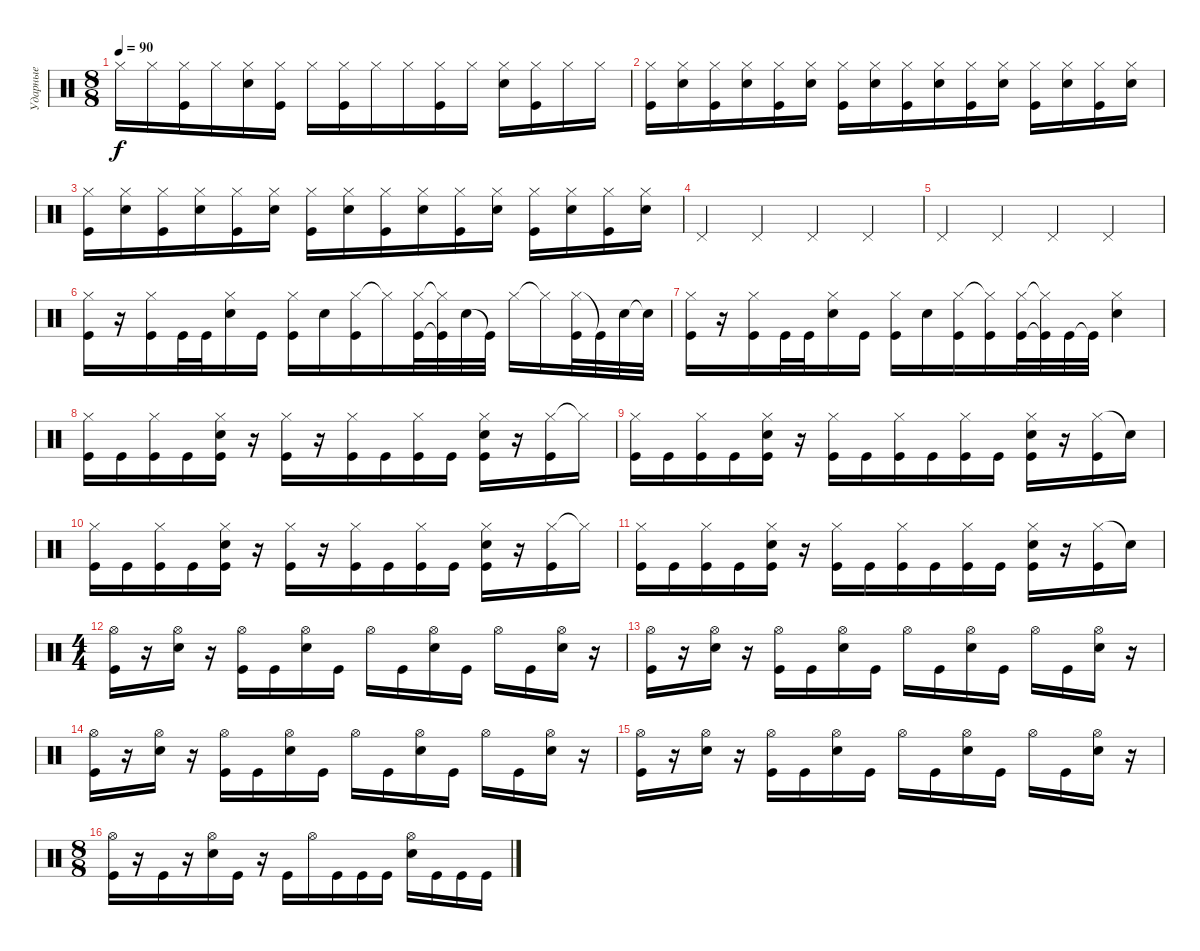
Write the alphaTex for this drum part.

\track ("Ударные" "Ударные") {instrument percussion}
\staff {score}
\articulation defaults
\ts (8 8)
\tempo 90
\clef neutral
\ks c "Hi-Hat (closed)".16{dy f} "Hi-Hat (closed)".16
("Hi-Hat (closed)" "Kick (hit)").16 "Hi-Hat (closed)".16 ("Hi-Hat (closed)" "Electric Snare (hit)").16 ("Hi-Hat (closed)" "Kick (hit)").16 "Hi-Hat (closed)".16 ("Hi-Hat (closed)" "Kick (hit)").16 "Hi-Hat (closed)".16 "Hi-Hat (closed)".16 ("Hi-Hat (closed)" "Kick (hit)").16 "Hi-Hat (closed)".16 ("Hi-Hat (closed)" "Electric Snare (hit)").16 ("Hi-Hat (closed)" "Kick (hit)").16 "Hi-Hat (closed)".16 "Hi-Hat (closed)".16 |
("Hi-Hat (closed)" "Kick (hit)").16 ("Hi-Hat (closed)" "Electric Snare (hit)").16 ("Hi-Hat (closed)" "Kick (hit)").16 ("Hi-Hat (closed)" "Electric Snare (hit)").16 ("Hi-Hat (closed)" "Kick (hit)").16 ("Hi-Hat (closed)" "Electric Snare (hit)").16 ("Hi-Hat (closed)" "Kick (hit)").16 ("Hi-Hat (closed)" "Electric Snare (hit)").16 ("Hi-Hat (closed)" "Kick (hit)").16 ("Hi-Hat (closed)" "Electric Snare (hit)").16 ("Hi-Hat (closed)" "Kick (hit)").16 ("Hi-Hat (closed)" "Electric Snare (hit)").16 ("Hi-Hat (closed)" "Kick (hit)").16 ("Hi-Hat (closed)" "Electric Snare (hit)").16 ("Hi-Hat (closed)" "Kick (hit)").16 ("Hi-Hat (closed)" "Electric Snare (hit)").16 |
("Hi-Hat (closed)" "Kick (hit)").16 ("Hi-Hat (closed)" "Electric Snare (hit)").16 ("Hi-Hat (closed)" "Kick (hit)").16 ("Hi-Hat (closed)" "Electric Snare (hit)").16 ("Hi-Hat (closed)" "Kick (hit)").16 ("Hi-Hat (closed)" "Electric Snare (hit)").16 ("Hi-Hat (closed)" "Kick (hit)").16 ("Hi-Hat (closed)" "Electric Snare (hit)").16 ("Hi-Hat (closed)" "Kick (hit)").16 ("Hi-Hat (closed)" "Electric Snare (hit)").16 ("Hi-Hat (closed)" "Kick (hit)").16 ("Hi-Hat (closed)" "Electric Snare (hit)").16 ("Hi-Hat (closed)" "Kick (hit)").16 ("Hi-Hat (closed)" "Electric Snare (hit)").16 ("Hi-Hat (closed)" "Kick (hit)").16 ("Hi-Hat (closed)" "Electric Snare (hit)").16 |
"Pedal Hi-Hat (hit)".4 "Pedal Hi-Hat (hit)".4 "Pedal Hi-Hat (hit)".4 "Pedal Hi-Hat (hit)".4 |
"Pedal Hi-Hat (hit)".4 "Pedal Hi-Hat (hit)".4 "Pedal Hi-Hat (hit)".4 "Pedal Hi-Hat (hit)".4 |
("Hi-Hat (closed)" "Kick (hit)").16 r.16 ("Hi-Hat (closed)" "Kick (hit)").16 "Kick (hit)".32 "Kick (hit)".32 ("Hi-Hat (closed)" "Electric Snare (hit)").16 "Kick (hit)".16 ("Hi-Hat (closed)" "Kick (hit)").16 "Electric Snare (hit)".16 ("Hi-Hat (closed)" "Kick (hit)").16 "Hi-Hat (closed)"{t}.16 ("Hi-Hat (closed)" "Kick (hit)").32 ("Hi-Hat (closed)"{t} "Kick (hit)"{t}).32 "Electric Snare (hit)".32 "Kick (hit)"{t}.32 "Hi-Hat (closed)".16 "Hi-Hat (closed)"{t}.16 ("Hi-Hat (closed)" "Kick (hit)").32 "Kick (hit)"{t}.32 "Electric Snare (hit)".32 "Electric Snare (hit)"{t}.32 |
("Hi-Hat (closed)" "Kick (hit)").16 r.16 ("Hi-Hat (closed)" "Kick (hit)").16 "Kick (hit)".32 "Kick (hit)".32 ("Hi-Hat (closed)" "Electric Snare (hit)").16 "Kick (hit)".16 ("Hi-Hat (closed)" "Kick (hit)").16 "Electric Snare (hit)".16 ("Hi-Hat (closed)" "Kick (hit)").16 ("Hi-Hat (closed)"{t} "Kick (hit)").16 ("Hi-Hat (closed)" "Kick (hit)").32 ("Hi-Hat (closed)"{t} "Kick (hit)"{t}).32 "Kick (hit)".32 "Kick (hit)"{t}.32 ("Hi-Hat (closed)" "Electric Snare (hit)").4 |
("Hi-Hat (closed)" "Kick (hit)").16 "Kick (hit)".16 ("Hi-Hat (closed)" "Kick (hit)").16 "Kick (hit)".16 ("Hi-Hat (closed)" "Kick (hit)" "Electric Snare (hit)").16 r.16 ("Hi-Hat (closed)" "Kick (hit)").16 r.16 ("Hi-Hat (closed)" "Kick (hit)").16 "Kick (hit)".16 ("Hi-Hat (closed)" "Kick (hit)").16 "Kick (hit)".16 ("Hi-Hat (closed)" "Kick (hit)" "Electric Snare (hit)").16 r.16 ("Hi-Hat (closed)" "Kick (hit)").16 "Hi-Hat (closed)"{t}.16 |
("Hi-Hat (closed)" "Kick (hit)").16 "Kick (hit)".16 ("Hi-Hat (closed)" "Kick (hit)").16 "Kick (hit)".16 ("Hi-Hat (closed)" "Kick (hit)" "Electric Snare (hit)").16 r.16 ("Hi-Hat (closed)" "Kick (hit)").16 "Kick (hit)".16 ("Hi-Hat (closed)" "Kick (hit)").16 "Kick (hit)".16 ("Hi-Hat (closed)" "Kick (hit)").16 "Kick (hit)".16 ("Hi-Hat (closed)" "Kick (hit)" "Electric Snare (hit)").16 r.16 ("Hi-Hat (closed)" "Kick (hit)").16 "Snare (hit)"{t}.16 |
("Hi-Hat (closed)" "Kick (hit)").16 "Kick (hit)".16 ("Hi-Hat (closed)" "Kick (hit)").16 "Kick (hit)".16 ("Hi-Hat (closed)" "Kick (hit)" "Electric Snare (hit)").16 r.16 ("Hi-Hat (closed)" "Kick (hit)").16 r.16 ("Hi-Hat (closed)" "Kick (hit)").16 "Kick (hit)".16 ("Hi-Hat (closed)" "Kick (hit)").16 "Kick (hit)".16 ("Hi-Hat (closed)" "Kick (hit)" "Electric Snare (hit)").16 r.16 ("Hi-Hat (closed)" "Kick (hit)").16 "Hi-Hat (closed)"{t}.16 |
("Hi-Hat (closed)" "Kick (hit)").16 "Kick (hit)".16 ("Hi-Hat (closed)" "Kick (hit)").16 "Kick (hit)".16 ("Hi-Hat (closed)" "Kick (hit)" "Electric Snare (hit)").16 r.16 ("Hi-Hat (closed)" "Kick (hit)").16 "Kick (hit)".16 ("Hi-Hat (closed)" "Kick (hit)").16 "Kick (hit)".16 ("Hi-Hat (closed)" "Kick (hit)").16 "Kick (hit)".16 ("Hi-Hat (closed)" "Kick (hit)" "Electric Snare (hit)").16 r.16 ("Hi-Hat (closed)" "Kick (hit)").16 "Snare (hit)"{t}.16 |
\ts (4 4)
("Hi-Hat (open)" "Kick (hit)").16 r.16 ("Hi-Hat (open)" "Electric Snare (hit)").16 r.16 ("Hi-Hat (open)" "Kick (hit)").16 "Kick (hit)".16 ("Hi-Hat (open)" "Electric Snare (hit)").16 "Kick (hit)".16 "Hi-Hat (open)".16 "Kick (hit)".16 ("Hi-Hat (open)" "Electric Snare (hit)").16 "Kick (hit)".16 "Hi-Hat (open)".16 "Kick (hit)".16 ("Hi-Hat (open)" "Electric Snare (hit)").16 r.16 |
("Hi-Hat (open)" "Kick (hit)").16 r.16 ("Hi-Hat (open)" "Electric Snare (hit)").16 r.16 ("Hi-Hat (open)" "Kick (hit)").16 "Kick (hit)".16 ("Hi-Hat (open)" "Electric Snare (hit)").16 "Kick (hit)".16 "Hi-Hat (open)".16 "Kick (hit)".16 ("Hi-Hat (open)" "Electric Snare (hit)").16 "Kick (hit)".16 "Hi-Hat (open)".16 "Kick (hit)".16 ("Hi-Hat (open)" "Electric Snare (hit)").16 r.16 |
("Hi-Hat (open)" "Kick (hit)").16 r.16 ("Hi-Hat (open)" "Electric Snare (hit)").16 r.16 ("Hi-Hat (open)" "Kick (hit)").16 "Kick (hit)".16 ("Hi-Hat (open)" "Electric Snare (hit)").16 "Kick (hit)".16 "Hi-Hat (open)".16 "Kick (hit)".16 ("Hi-Hat (open)" "Electric Snare (hit)").16 "Kick (hit)".16 "Hi-Hat (open)".16 "Kick (hit)".16 ("Hi-Hat (open)" "Electric Snare (hit)").16 r.16 |
("Hi-Hat (open)" "Kick (hit)").16 r.16 ("Hi-Hat (open)" "Electric Snare (hit)").16 r.16 ("Hi-Hat (open)" "Kick (hit)").16 "Kick (hit)".16 ("Hi-Hat (open)" "Electric Snare (hit)").16 "Kick (hit)".16 "Hi-Hat (open)".16 "Kick (hit)".16 ("Hi-Hat (open)" "Electric Snare (hit)").16 "Kick (hit)".16 "Hi-Hat (open)".16 "Kick (hit)".16 ("Hi-Hat (open)" "Electric Snare (hit)").16 r.16 |
\ts (8 8)
("Hi-Hat (open)" "Kick (hit)").16 r.16 "Kick (hit)".16 r.16 ("Hi-Hat (open)" "Electric Snare (hit)").16 "Kick (hit)".16 r.16 "Kick (hit)".16 "Hi-Hat (open)".16 "Kick (hit)".16 "Kick (hit)".16 "Kick (hit)".16 ("Hi-Hat (open)" "Electric Snare (hit)").16 "Kick (hit)".16 "Kick (hit)".16 "Kick (hit)".16
